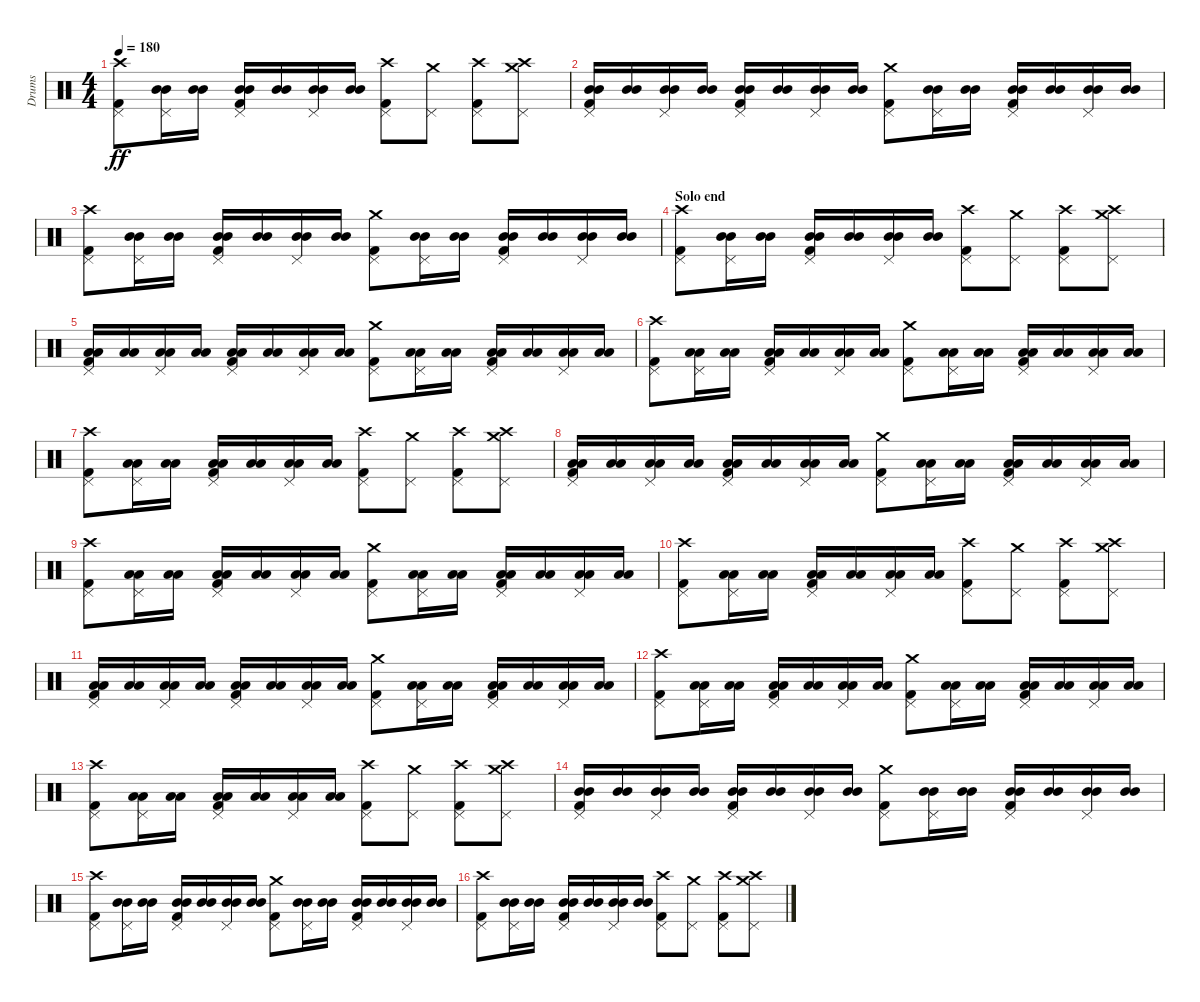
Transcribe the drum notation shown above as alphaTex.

\track ("Drums" "Drums") {instrument percussion}
\staff {score}
\articulation defaults
\ts (4 4)
\tempo 180
\clef neutral
\ks c
("Crash high (hit)" "Pedal Hi-Hat (hit)" "Kick (hit) 2").8{dy ff} ("Pedal Hi-Hat (hit)" "Mid Tom (hit)" "Mid Tom (hit)").16 ("Mid Tom (hit)" "Mid Tom (hit)").16 ("Pedal Hi-Hat (hit)" "Mid Tom (hit)" "Kick (hit) 2" "Mid Tom (hit)").16 ("Mid Tom (hit)" "Mid Tom (hit)").16 ("Pedal Hi-Hat (hit)" "Mid Tom (hit)" "Mid Tom (hit)").16 ("Mid Tom (hit)" "Mid Tom (hit)").16 ("Crash high (hit)" "Pedal Hi-Hat (hit)" "Kick (hit) 2").8 ("Pedal Hi-Hat (hit)" "Crash medium (hit)").8 ("Crash high (hit)" "Pedal Hi-Hat (hit)" "Kick (hit) 2").8 ("Crash high (hit)" "Pedal Hi-Hat (hit)" "Crash medium (hit)").8 |
("Pedal Hi-Hat (hit)" "Mid Tom (hit)" "Kick (hit) 2" "Mid Tom (hit)").16 ("Mid Tom (hit)" "Mid Tom (hit)").16 ("Pedal Hi-Hat (hit)" "Mid Tom (hit)" "Mid Tom (hit)").16 ("Mid Tom (hit)" "Mid Tom (hit)").16 ("Pedal Hi-Hat (hit)" "Mid Tom (hit)" "Kick (hit) 2" "Mid Tom (hit)").16 ("Mid Tom (hit)" "Mid Tom (hit)").16 ("Pedal Hi-Hat (hit)" "Mid Tom (hit)" "Mid Tom (hit)").16 ("Mid Tom (hit)" "Mid Tom (hit)").16 ("Pedal Hi-Hat (hit)" "Crash medium (hit)" "Kick (hit) 2").8 ("Pedal Hi-Hat (hit)" "Mid Tom (hit)" "Mid Tom (hit)").16 ("Mid Tom (hit)" "Mid Tom (hit)").16 ("Pedal Hi-Hat (hit)" "Mid Tom (hit)" "Kick (hit) 2" "Mid Tom (hit)").16 ("Mid Tom (hit)" "Mid Tom (hit)").16 ("Pedal Hi-Hat (hit)" "Mid Tom (hit)" "Mid Tom (hit)").16 ("Mid Tom (hit)" "Mid Tom (hit)").16 |
("Crash high (hit)" "Pedal Hi-Hat (hit)" "Kick (hit) 2").8 ("Pedal Hi-Hat (hit)" "Mid Tom (hit)" "Mid Tom (hit)").16 ("Mid Tom (hit)" "Mid Tom (hit)").16 ("Pedal Hi-Hat (hit)" "Mid Tom (hit)" "Kick (hit) 2" "Mid Tom (hit)").16 ("Mid Tom (hit)" "Mid Tom (hit)").16 ("Pedal Hi-Hat (hit)" "Mid Tom (hit)" "Mid Tom (hit)").16 ("Mid Tom (hit)" "Mid Tom (hit)").16 ("Pedal Hi-Hat (hit)" "Crash medium (hit)" "Kick (hit) 2").8 ("Pedal Hi-Hat (hit)" "Mid Tom (hit)" "Mid Tom (hit)").16 ("Mid Tom (hit)" "Mid Tom (hit)").16 ("Pedal Hi-Hat (hit)" "Mid Tom (hit)" "Kick (hit) 2" "Mid Tom (hit)").16 ("Mid Tom (hit)" "Mid Tom (hit)").16 ("Pedal Hi-Hat (hit)" "Mid Tom (hit)" "Mid Tom (hit)").16 ("Mid Tom (hit)" "Mid Tom (hit)").16 |
\section ("" "Solo end")
("Crash high (hit)" "Pedal Hi-Hat (hit)" "Kick (hit) 2").8 ("Pedal Hi-Hat (hit)" "Mid Tom (hit)" "Mid Tom (hit)").16 ("Mid Tom (hit)" "Mid Tom (hit)").16 ("Pedal Hi-Hat (hit)" "Mid Tom (hit)" "Kick (hit) 2" "Mid Tom (hit)").16 ("Mid Tom (hit)" "Mid Tom (hit)").16 ("Pedal Hi-Hat (hit)" "Mid Tom (hit)" "Mid Tom (hit)").16 ("Mid Tom (hit)" "Mid Tom (hit)").16 ("Crash high (hit)" "Pedal Hi-Hat (hit)" "Kick (hit) 2").8 ("Pedal Hi-Hat (hit)" "Crash medium (hit)").8 ("Crash high (hit)" "Pedal Hi-Hat (hit)" "Kick (hit) 2").8 ("Crash high (hit)" "Pedal Hi-Hat (hit)" "Crash medium (hit)").8 |
("Pedal Hi-Hat (hit)" "Low Tom (hit)" "Kick (hit) 2" "Low Tom (hit)").16 ("Low Tom (hit)" "Low Tom (hit)").16 ("Pedal Hi-Hat (hit)" "Low Tom (hit)" "Low Tom (hit)").16 ("Low Tom (hit)" "Low Tom (hit)").16 ("Pedal Hi-Hat (hit)" "Low Tom (hit)" "Kick (hit) 2" "Low Tom (hit)").16 ("Low Tom (hit)" "Low Tom (hit)").16 ("Pedal Hi-Hat (hit)" "Low Tom (hit)" "Low Tom (hit)").16 ("Low Tom (hit)" "Low Tom (hit)").16 ("Pedal Hi-Hat (hit)" "Crash medium (hit)" "Kick (hit) 2").8 ("Pedal Hi-Hat (hit)" "Low Tom (hit)" "Low Tom (hit)").16 ("Low Tom (hit)" "Low Tom (hit)").16 ("Pedal Hi-Hat (hit)" "Low Tom (hit)" "Kick (hit) 2" "Low Tom (hit)").16 ("Low Tom (hit)" "Low Tom (hit)").16 ("Pedal Hi-Hat (hit)" "Low Tom (hit)" "Low Tom (hit)").16 ("Low Tom (hit)" "Low Tom (hit)").16 |
("Crash high (hit)" "Pedal Hi-Hat (hit)" "Kick (hit) 2").8 ("Pedal Hi-Hat (hit)" "Low Tom (hit)" "Low Tom (hit)").16 ("Low Tom (hit)" "Low Tom (hit)").16 ("Pedal Hi-Hat (hit)" "Low Tom (hit)" "Kick (hit) 2" "Low Tom (hit)").16 ("Low Tom (hit)" "Low Tom (hit)").16 ("Pedal Hi-Hat (hit)" "Low Tom (hit)" "Low Tom (hit)").16 ("Low Tom (hit)" "Low Tom (hit)").16 ("Pedal Hi-Hat (hit)" "Crash medium (hit)" "Kick (hit) 2").8 ("Pedal Hi-Hat (hit)" "Low Tom (hit)" "Low Tom (hit)").16 ("Low Tom (hit)" "Low Tom (hit)").16 ("Pedal Hi-Hat (hit)" "Low Tom (hit)" "Kick (hit) 2" "Low Tom (hit)").16 ("Low Tom (hit)" "Low Tom (hit)").16 ("Pedal Hi-Hat (hit)" "Low Tom (hit)" "Low Tom (hit)").16 ("Low Tom (hit)" "Low Tom (hit)").16 |
("Crash high (hit)" "Pedal Hi-Hat (hit)" "Kick (hit) 2").8 ("Pedal Hi-Hat (hit)" "Low Tom (hit)" "Low Tom (hit)").16 ("Low Tom (hit)" "Low Tom (hit)").16 ("Pedal Hi-Hat (hit)" "Low Tom (hit)" "Kick (hit) 2" "Low Tom (hit)").16 ("Low Tom (hit)" "Low Tom (hit)").16 ("Pedal Hi-Hat (hit)" "Low Tom (hit)" "Low Tom (hit)").16 ("Low Tom (hit)" "Low Tom (hit)").16 ("Crash high (hit)" "Pedal Hi-Hat (hit)" "Kick (hit) 2").8 ("Pedal Hi-Hat (hit)" "Crash medium (hit)").8 ("Crash high (hit)" "Pedal Hi-Hat (hit)" "Kick (hit) 2").8 ("Crash high (hit)" "Pedal Hi-Hat (hit)" "Crash medium (hit)").8 |
("Pedal Hi-Hat (hit)" "Low Tom (hit)" "Kick (hit) 2" "Low Tom (hit)").16 ("Low Tom (hit)" "Low Tom (hit)").16 ("Pedal Hi-Hat (hit)" "Low Tom (hit)" "Low Tom (hit)").16 ("Low Tom (hit)" "Low Tom (hit)").16 ("Pedal Hi-Hat (hit)" "Low Tom (hit)" "Kick (hit) 2" "Low Tom (hit)").16 ("Low Tom (hit)" "Low Tom (hit)").16 ("Pedal Hi-Hat (hit)" "Low Tom (hit)" "Low Tom (hit)").16 ("Low Tom (hit)" "Low Tom (hit)").16 ("Pedal Hi-Hat (hit)" "Crash medium (hit)" "Kick (hit) 2").8 ("Pedal Hi-Hat (hit)" "Low Tom (hit)" "Low Tom (hit)").16 ("Low Tom (hit)" "Low Tom (hit)").16 ("Pedal Hi-Hat (hit)" "Low Tom (hit)" "Kick (hit) 2" "Low Tom (hit)").16 ("Low Tom (hit)" "Low Tom (hit)").16 ("Pedal Hi-Hat (hit)" "Low Tom (hit)" "Low Tom (hit)").16 ("Low Tom (hit)" "Low Tom (hit)").16 |
("Crash high (hit)" "Pedal Hi-Hat (hit)" "Kick (hit) 2").8 ("Pedal Hi-Hat (hit)" "Low Tom (hit)" "Low Tom (hit)").16 ("Low Tom (hit)" "Low Tom (hit)").16 ("Pedal Hi-Hat (hit)" "Low Tom (hit)" "Kick (hit) 2" "Low Tom (hit)").16 ("Low Tom (hit)" "Low Tom (hit)").16 ("Pedal Hi-Hat (hit)" "Low Tom (hit)" "Low Tom (hit)").16 ("Low Tom (hit)" "Low Tom (hit)").16 ("Pedal Hi-Hat (hit)" "Crash medium (hit)" "Kick (hit) 2").8 ("Pedal Hi-Hat (hit)" "Low Tom (hit)" "Low Tom (hit)").16 ("Low Tom (hit)" "Low Tom (hit)").16 ("Pedal Hi-Hat (hit)" "Low Tom (hit)" "Kick (hit) 2" "Low Tom (hit)").16 ("Low Tom (hit)" "Low Tom (hit)").16 ("Pedal Hi-Hat (hit)" "Low Tom (hit)" "Low Tom (hit)").16 ("Low Tom (hit)" "Low Tom (hit)").16 |
("Crash high (hit)" "Pedal Hi-Hat (hit)" "Kick (hit) 2").8 ("Pedal Hi-Hat (hit)" "Low Tom (hit)" "Low Tom (hit)").16 ("Low Tom (hit)" "Low Tom (hit)").16 ("Pedal Hi-Hat (hit)" "Low Tom (hit)" "Kick (hit) 2" "Low Tom (hit)").16 ("Low Tom (hit)" "Low Tom (hit)").16 ("Pedal Hi-Hat (hit)" "Low Tom (hit)" "Low Tom (hit)").16 ("Low Tom (hit)" "Low Tom (hit)").16 ("Crash high (hit)" "Pedal Hi-Hat (hit)" "Kick (hit) 2").8 ("Pedal Hi-Hat (hit)" "Crash medium (hit)").8 ("Crash high (hit)" "Pedal Hi-Hat (hit)" "Kick (hit) 2").8 ("Crash high (hit)" "Pedal Hi-Hat (hit)" "Crash medium (hit)").8 |
("Pedal Hi-Hat (hit)" "Low Tom (hit)" "Kick (hit) 2" "Low Tom (hit)").16 ("Low Tom (hit)" "Low Tom (hit)").16 ("Pedal Hi-Hat (hit)" "Low Tom (hit)" "Low Tom (hit)").16 ("Low Tom (hit)" "Low Tom (hit)").16 ("Pedal Hi-Hat (hit)" "Low Tom (hit)" "Kick (hit) 2" "Low Tom (hit)").16 ("Low Tom (hit)" "Low Tom (hit)").16 ("Pedal Hi-Hat (hit)" "Low Tom (hit)" "Low Tom (hit)").16 ("Low Tom (hit)" "Low Tom (hit)").16 ("Pedal Hi-Hat (hit)" "Crash medium (hit)" "Kick (hit) 2").8 ("Pedal Hi-Hat (hit)" "Low Tom (hit)" "Low Tom (hit)").16 ("Low Tom (hit)" "Low Tom (hit)").16 ("Pedal Hi-Hat (hit)" "Low Tom (hit)" "Kick (hit) 2" "Low Tom (hit)").16 ("Low Tom (hit)" "Low Tom (hit)").16 ("Pedal Hi-Hat (hit)" "Low Tom (hit)" "Low Tom (hit)").16 ("Low Tom (hit)" "Low Tom (hit)").16 |
("Crash high (hit)" "Pedal Hi-Hat (hit)" "Kick (hit) 2").8 ("Pedal Hi-Hat (hit)" "Low Tom (hit)" "Low Tom (hit)").16 ("Low Tom (hit)" "Low Tom (hit)").16 ("Pedal Hi-Hat (hit)" "Low Tom (hit)" "Kick (hit) 2" "Low Tom (hit)").16 ("Low Tom (hit)" "Low Tom (hit)").16 ("Pedal Hi-Hat (hit)" "Low Tom (hit)" "Low Tom (hit)").16 ("Low Tom (hit)" "Low Tom (hit)").16 ("Pedal Hi-Hat (hit)" "Crash medium (hit)" "Kick (hit) 2").8 ("Pedal Hi-Hat (hit)" "Low Tom (hit)" "Low Tom (hit)").16 ("Low Tom (hit)" "Low Tom (hit)").16 ("Pedal Hi-Hat (hit)" "Low Tom (hit)" "Kick (hit) 2" "Low Tom (hit)").16 ("Low Tom (hit)" "Low Tom (hit)").16 ("Pedal Hi-Hat (hit)" "Low Tom (hit)" "Low Tom (hit)").16 ("Low Tom (hit)" "Low Tom (hit)").16 |
("Crash high (hit)" "Pedal Hi-Hat (hit)" "Kick (hit) 2").8 ("Pedal Hi-Hat (hit)" "Low Tom (hit)" "Low Tom (hit)").16 ("Low Tom (hit)" "Low Tom (hit)").16 ("Pedal Hi-Hat (hit)" "Low Tom (hit)" "Kick (hit) 2" "Low Tom (hit)").16 ("Low Tom (hit)" "Low Tom (hit)").16 ("Pedal Hi-Hat (hit)" "Low Tom (hit)" "Low Tom (hit)").16 ("Low Tom (hit)" "Low Tom (hit)").16 ("Crash high (hit)" "Pedal Hi-Hat (hit)" "Kick (hit) 2").8 ("Pedal Hi-Hat (hit)" "Crash medium (hit)").8 ("Crash high (hit)" "Pedal Hi-Hat (hit)" "Kick (hit) 2").8 ("Crash high (hit)" "Pedal Hi-Hat (hit)" "Crash medium (hit)").8 |
("Pedal Hi-Hat (hit)" "Mid Tom (hit)" "Kick (hit) 2" "Mid Tom (hit)").16 ("Mid Tom (hit)" "Mid Tom (hit)").16 ("Pedal Hi-Hat (hit)" "Mid Tom (hit)" "Mid Tom (hit)").16 ("Mid Tom (hit)" "Mid Tom (hit)").16 ("Pedal Hi-Hat (hit)" "Mid Tom (hit)" "Kick (hit) 2" "Mid Tom (hit)").16 ("Mid Tom (hit)" "Mid Tom (hit)").16 ("Pedal Hi-Hat (hit)" "Mid Tom (hit)" "Mid Tom (hit)").16 ("Mid Tom (hit)" "Mid Tom (hit)").16 ("Pedal Hi-Hat (hit)" "Crash medium (hit)" "Kick (hit) 2").8 ("Pedal Hi-Hat (hit)" "Mid Tom (hit)" "Mid Tom (hit)").16 ("Mid Tom (hit)" "Mid Tom (hit)").16 ("Pedal Hi-Hat (hit)" "Mid Tom (hit)" "Kick (hit) 2" "Mid Tom (hit)").16 ("Mid Tom (hit)" "Mid Tom (hit)").16 ("Pedal Hi-Hat (hit)" "Mid Tom (hit)" "Mid Tom (hit)").16 ("Mid Tom (hit)" "Mid Tom (hit)").16 |
("Crash high (hit)" "Pedal Hi-Hat (hit)" "Kick (hit) 2").8 ("Pedal Hi-Hat (hit)" "Mid Tom (hit)" "Mid Tom (hit)").16 ("Mid Tom (hit)" "Mid Tom (hit)").16 ("Pedal Hi-Hat (hit)" "Mid Tom (hit)" "Kick (hit) 2" "Mid Tom (hit)").16 ("Mid Tom (hit)" "Mid Tom (hit)").16 ("Pedal Hi-Hat (hit)" "Mid Tom (hit)" "Mid Tom (hit)").16 ("Mid Tom (hit)" "Mid Tom (hit)").16 ("Pedal Hi-Hat (hit)" "Crash medium (hit)" "Kick (hit) 2").8 ("Pedal Hi-Hat (hit)" "Mid Tom (hit)" "Mid Tom (hit)").16 ("Mid Tom (hit)" "Mid Tom (hit)").16 ("Pedal Hi-Hat (hit)" "Mid Tom (hit)" "Kick (hit) 2" "Mid Tom (hit)").16 ("Mid Tom (hit)" "Mid Tom (hit)").16 ("Pedal Hi-Hat (hit)" "Mid Tom (hit)" "Mid Tom (hit)").16 ("Mid Tom (hit)" "Mid Tom (hit)").16 |
("Crash high (hit)" "Pedal Hi-Hat (hit)" "Kick (hit) 2").8 ("Pedal Hi-Hat (hit)" "Mid Tom (hit)" "Mid Tom (hit)").16 ("Mid Tom (hit)" "Mid Tom (hit)").16 ("Pedal Hi-Hat (hit)" "Mid Tom (hit)" "Kick (hit) 2" "Mid Tom (hit)").16 ("Mid Tom (hit)" "Mid Tom (hit)").16 ("Pedal Hi-Hat (hit)" "Mid Tom (hit)" "Mid Tom (hit)").16 ("Mid Tom (hit)" "Mid Tom (hit)").16 ("Crash high (hit)" "Pedal Hi-Hat (hit)" "Kick (hit) 2").8 ("Pedal Hi-Hat (hit)" "Crash medium (hit)").8 ("Crash high (hit)" "Pedal Hi-Hat (hit)" "Kick (hit) 2").8 ("Crash high (hit)" "Pedal Hi-Hat (hit)" "Crash medium (hit)").8
